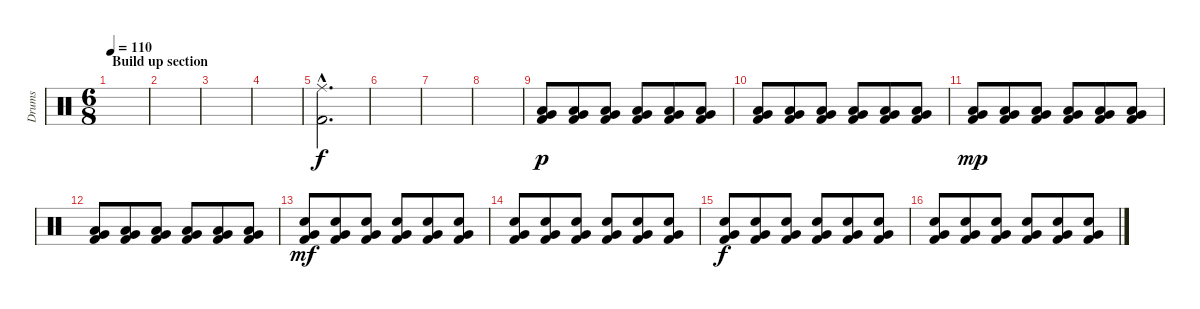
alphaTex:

\track ("Drums" "Drums") {instrument percussion}
\staff {score}
\articulation defaults
\ts (6 8)
\section ("" "Build up section")
\tempo 110
\clef neutral
\ks c
|
|
|
|
("Ride (middle)"{hac} "Kick (hit) 2"{hac}).2{d dy f} |
|
|
|
("Low Floor Tom (hit)" "Very Low Tom (hit)" "Kick (hit) 2").8{dy p} ("Low Floor Tom (hit)" "Very Low Tom (hit)" "Kick (hit) 2").8 ("Low Floor Tom (hit)" "Very Low Tom (hit)" "Kick (hit) 2").8 ("Low Floor Tom (hit)" "Very Low Tom (hit)" "Kick (hit) 2").8 ("Low Floor Tom (hit)" "Very Low Tom (hit)" "Kick (hit) 2").8 ("Low Floor Tom (hit)" "Very Low Tom (hit)" "Kick (hit) 2").8 |
("Low Floor Tom (hit)" "Very Low Tom (hit)" "Kick (hit) 2").8 ("Low Floor Tom (hit)" "Very Low Tom (hit)" "Kick (hit) 2").8 ("Low Floor Tom (hit)" "Very Low Tom (hit)" "Kick (hit) 2").8 ("Low Floor Tom (hit)" "Very Low Tom (hit)" "Kick (hit) 2").8 ("Low Floor Tom (hit)" "Very Low Tom (hit)" "Kick (hit) 2").8 ("Low Floor Tom (hit)" "Very Low Tom (hit)" "Kick (hit) 2").8 |
("Low Floor Tom (hit)" "Very Low Tom (hit)" "Kick (hit) 2").8{dy mp} ("Low Floor Tom (hit)" "Very Low Tom (hit)" "Kick (hit) 2").8 ("Low Floor Tom (hit)" "Very Low Tom (hit)" "Kick (hit) 2").8 ("Low Floor Tom (hit)" "Very Low Tom (hit)" "Kick (hit) 2").8 ("Low Floor Tom (hit)" "Very Low Tom (hit)" "Kick (hit) 2").8 ("Low Floor Tom (hit)" "Very Low Tom (hit)" "Kick (hit) 2").8 |
("Low Floor Tom (hit)" "Very Low Tom (hit)" "Kick (hit) 2").8 ("Low Floor Tom (hit)" "Very Low Tom (hit)" "Kick (hit) 2").8 ("Low Floor Tom (hit)" "Very Low Tom (hit)" "Kick (hit) 2").8 ("Low Floor Tom (hit)" "Very Low Tom (hit)" "Kick (hit) 2").8 ("Low Floor Tom (hit)" "Very Low Tom (hit)" "Kick (hit) 2").8 ("Low Floor Tom (hit)" "Very Low Tom (hit)" "Kick (hit) 2").8 |
("Electric Snare (hit)" "Very Low Tom (hit)" "Kick (hit) 2").8{dy mf} ("Electric Snare (hit)" "Very Low Tom (hit)" "Kick (hit) 2").8 ("Electric Snare (hit)" "Very Low Tom (hit)" "Kick (hit) 2").8 ("Electric Snare (hit)" "Very Low Tom (hit)" "Kick (hit) 2").8 ("Electric Snare (hit)" "Very Low Tom (hit)" "Kick (hit) 2").8 ("Electric Snare (hit)" "Very Low Tom (hit)" "Kick (hit) 2").8 |
("Electric Snare (hit)" "Very Low Tom (hit)" "Kick (hit) 2").8 ("Electric Snare (hit)" "Very Low Tom (hit)" "Kick (hit) 2").8 ("Electric Snare (hit)" "Very Low Tom (hit)" "Kick (hit) 2").8 ("Electric Snare (hit)" "Very Low Tom (hit)" "Kick (hit) 2").8 ("Electric Snare (hit)" "Very Low Tom (hit)" "Kick (hit) 2").8 ("Electric Snare (hit)" "Very Low Tom (hit)" "Kick (hit) 2").8 |
("Electric Snare (hit)" "Very Low Tom (hit)" "Kick (hit) 2").8{dy f} ("Electric Snare (hit)" "Very Low Tom (hit)" "Kick (hit) 2").8 ("Electric Snare (hit)" "Very Low Tom (hit)" "Kick (hit) 2").8 ("Electric Snare (hit)" "Very Low Tom (hit)" "Kick (hit) 2").8 ("Electric Snare (hit)" "Very Low Tom (hit)" "Kick (hit) 2").8 ("Electric Snare (hit)" "Very Low Tom (hit)" "Kick (hit) 2").8 |
("Electric Snare (hit)" "Very Low Tom (hit)" "Kick (hit) 2").8 ("Electric Snare (hit)" "Very Low Tom (hit)" "Kick (hit) 2").8 ("Electric Snare (hit)" "Very Low Tom (hit)" "Kick (hit) 2").8 ("Electric Snare (hit)" "Very Low Tom (hit)" "Kick (hit) 2").8 ("Electric Snare (hit)" "Very Low Tom (hit)" "Kick (hit) 2").8 ("Electric Snare (hit)" "Very Low Tom (hit)" "Kick (hit) 2").8
